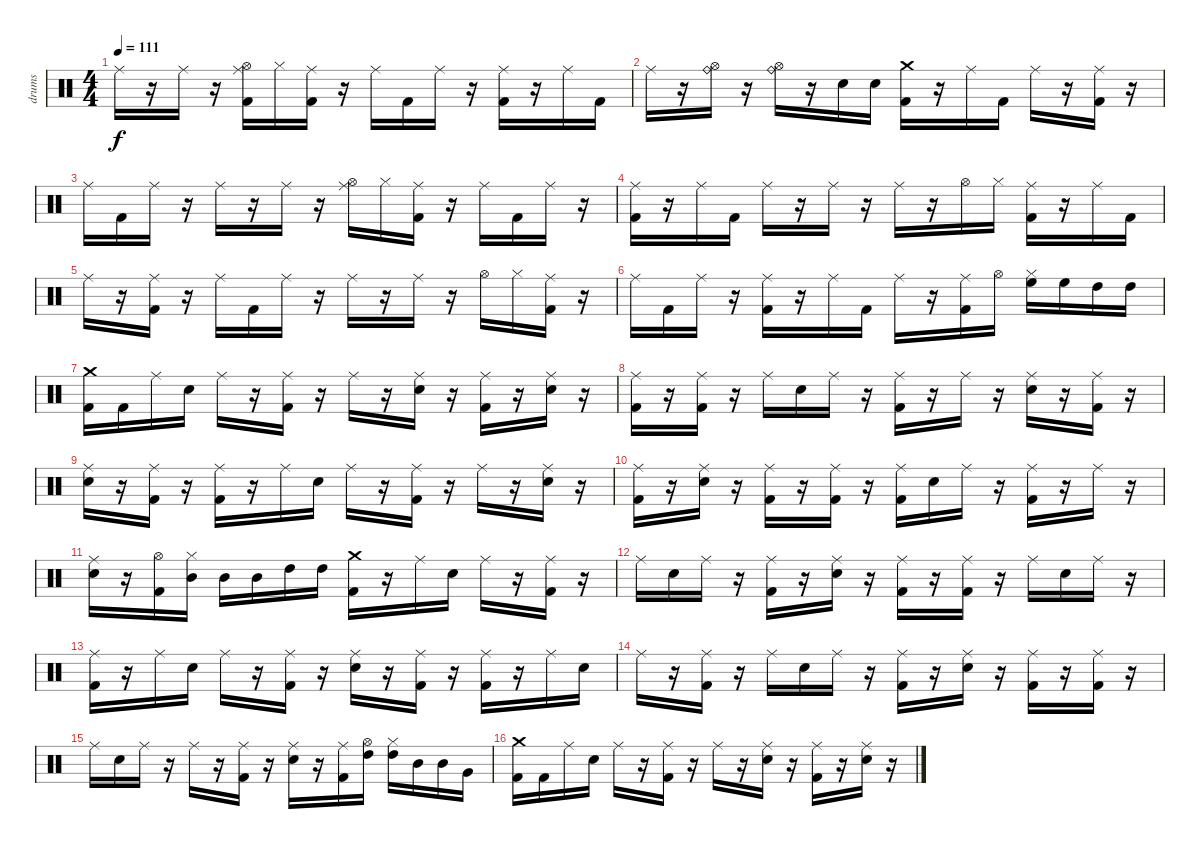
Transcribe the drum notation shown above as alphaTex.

\track ("drums" "drums") {instrument percussion}
\staff {score}
\articulation defaults
\ts (4 4)
\tempo 111
\clef neutral
\ks c "Ride (middle)".16{dy f}
r.16 "Ride (middle)".16 r.16 ("Hi-Hat (open)" "Ride (middle)" "Kick (hit) 2").16 "Hi-Hat (closed)".16 ("Ride (middle)" "Kick (hit) 2").16 r.16 "Ride (middle)".16 "Kick (hit) 2".16 "Ride (middle)".16 r.16 ("Ride (middle)" "Kick (hit) 2").16 r.16 "Ride (middle)".16 "Kick (hit) 2".16 |
"Ride (middle)".16 r.16 ("Hi-Hat (open)" "Ride (bell)").16 r.16 ("Hi-Hat (open)" "Ride (bell)").16 r.16 "Electric Snare (hit)".16 "Electric Snare (hit)".16 ("Crash medium (hit)" "Kick (hit) 2").16 r.16 "Ride (middle)".16 "Kick (hit) 2".16 "Ride (middle)".16 r.16 ("Ride (middle)" "Kick (hit) 2").16 r.16 |
"Ride (middle)".16 "Kick (hit) 2".16 "Ride (middle)".16 r.16 "Ride (middle)".16 r.16 "Ride (middle)".16 r.16 ("Hi-Hat (open)" "Ride (middle)").16 "Hi-Hat (closed)".16 ("Ride (middle)" "Kick (hit) 2").16 r.16 "Ride (middle)".16 "Kick (hit) 2".16 "Ride (middle)".16 r.16 |
("Ride (middle)" "Kick (hit) 2").16 r.16 "Ride (middle)".16 "Kick (hit) 2".16 "Ride (middle)".16 r.16 "Ride (middle)".16 r.16 "Ride (middle)".16 r.16 "Hi-Hat (open)".16 "Hi-Hat (closed)".16 ("Ride (middle)" "Kick (hit) 2").16 r.16 "Ride (middle)".16 "Kick (hit) 2".16 |
"Ride (middle)".16 r.16 ("Ride (middle)" "Kick (hit) 2").16 r.16 "Ride (middle)".16 "Kick (hit) 2".16 "Ride (middle)".16 r.16 "Ride (middle)".16 r.16 "Ride (middle)".16 r.16 "Hi-Hat (open)".16 "Hi-Hat (closed)".16 ("Ride (middle)" "Kick (hit) 2").16 r.16 |
"Ride (middle)".16 "Kick (hit) 2".16 "Ride (middle)".16 r.16 ("Ride (middle)" "Kick (hit) 2").16 r.16 "Ride (middle)".16 "Kick (hit) 2".16 "Ride (middle)".16 r.16 ("Ride (middle)" "Kick (hit) 2").16 "Hi-Hat (open)".16 ("Hi-Hat (closed)" "High Floor Tom (hit)").16 "High Floor Tom (hit)".16 "High Tom (hit)".16 "High Tom (hit)".16 |
("Crash medium (hit)" "Kick (hit) 2").16 "Kick (hit) 2".16 "Ride (middle)".16 "Electric Snare (hit)".16 "Ride (middle)".16 r.16 ("Ride (middle)" "Kick (hit) 2").16 r.16 "Ride (middle)".16 r.16 ("Ride (middle)" "Electric Snare (hit)").16 r.16 ("Ride (middle)" "Kick (hit) 2").16 r.16 ("Ride (middle)" "Electric Snare (hit)").16 r.16 |
("Ride (middle)" "Kick (hit) 2").16 r.16 ("Ride (middle)" "Kick (hit) 2").16 r.16 "Ride (middle)".16 "Electric Snare (hit)".16 "Ride (middle)".16 r.16 ("Ride (middle)" "Kick (hit) 2").16 r.16 "Ride (middle)".16 r.16 ("Ride (middle)" "Electric Snare (hit)").16 r.16 ("Ride (middle)" "Kick (hit) 2").16 r.16 |
("Ride (middle)" "Electric Snare (hit)").16 r.16 ("Ride (middle)" "Kick (hit) 2").16 r.16 ("Ride (middle)" "Kick (hit) 2").16 r.16 "Ride (middle)".16 "Electric Snare (hit)".16 "Ride (middle)".16 r.16 ("Ride (middle)" "Kick (hit) 2").16 r.16 "Ride (middle)".16 r.16 ("Ride (middle)" "Electric Snare (hit)").16 r.16 |
("Ride (middle)" "Kick (hit) 2").16 r.16 ("Ride (middle)" "Electric Snare (hit)").16 r.16 ("Ride (middle)" "Kick (hit) 2").16 r.16 ("Ride (middle)" "Kick (hit) 2").16 r.16 ("Ride (middle)" "Kick (hit) 2").16 "Electric Snare (hit)".16 "Ride (middle)".16 r.16 ("Ride (middle)" "Kick (hit) 2").16 r.16 "Ride (middle)".16 r.16 |
("Ride (middle)" "Electric Snare (hit)").16 r.16 ("Hi-Hat (open)" "Kick (hit) 2").16 ("Hi-Hat (closed)" "Mid Tom (hit)").16 "Mid Tom (hit)".16 "Mid Tom (hit)".16 "High Tom (hit)".16 "High Tom (hit)".16 ("Crash medium (hit)" "Kick (hit) 2").16 r.16 "Ride (middle)".16 "Electric Snare (hit)".16 "Ride (middle)".16 r.16 ("Ride (middle)" "Kick (hit) 2").16 r.16 |
"Ride (middle)".16 "Electric Snare (hit)".16 "Ride (middle)".16 r.16 ("Ride (middle)" "Kick (hit) 2").16 r.16 ("Ride (middle)" "Electric Snare (hit)").16 r.16 ("Ride (middle)" "Kick (hit) 2").16 r.16 ("Ride (middle)" "Kick (hit) 2").16 r.16 "Ride (middle)".16 "Electric Snare (hit)".16 "Ride (middle)".16 r.16 |
("Ride (middle)" "Kick (hit) 2").16 r.16 "Ride (middle)".16 "Electric Snare (hit)".16 "Ride (middle)".16 r.16 ("Ride (middle)" "Kick (hit) 2").16 r.16 ("Ride (middle)" "Electric Snare (hit)").16 r.16 ("Ride (middle)" "Kick (hit) 2").16 r.16 ("Ride (middle)" "Kick (hit) 2").16 r.16 "Ride (middle)".16 "Electric Snare (hit)".16 |
"Ride (middle)".16 r.16 ("Ride (middle)" "Kick (hit) 2").16 r.16 "Ride (middle)".16 "Electric Snare (hit)".16 "Ride (middle)".16 r.16 ("Ride (middle)" "Kick (hit) 2").16 r.16 ("Ride (middle)" "Electric Snare (hit)").16 r.16 ("Ride (middle)" "Kick (hit) 2").16 r.16 ("Ride (middle)" "Kick (hit) 2").16 r.16 |
"Ride (middle)".16 "Electric Snare (hit)".16 "Ride (middle)".16 r.16 "Ride (middle)".16 r.16 ("Ride (middle)" "Kick (hit) 2").16 r.16 ("Ride (middle)" "Electric Snare (hit)").16 r.16 ("Ride (middle)" "Kick (hit) 2").16 ("Hi-Hat (open)" "High Tom (hit)").16 ("Hi-Hat (closed)" "High Tom (hit)").16 "Mid Tom (hit)".16 "Mid Tom (hit)".16 "Very Low Tom (hit)".16 |
("Crash medium (hit)" "Kick (hit) 2").16 "Kick (hit) 2".16 "Ride (middle)".16 "Electric Snare (hit)".16 "Ride (middle)".16 r.16 ("Ride (middle)" "Kick (hit) 2").16 r.16 "Ride (middle)".16 r.16 ("Ride (middle)" "Electric Snare (hit)").16 r.16 ("Ride (middle)" "Kick (hit) 2").16 r.16 ("Ride (middle)" "Electric Snare (hit)").16 r.16
